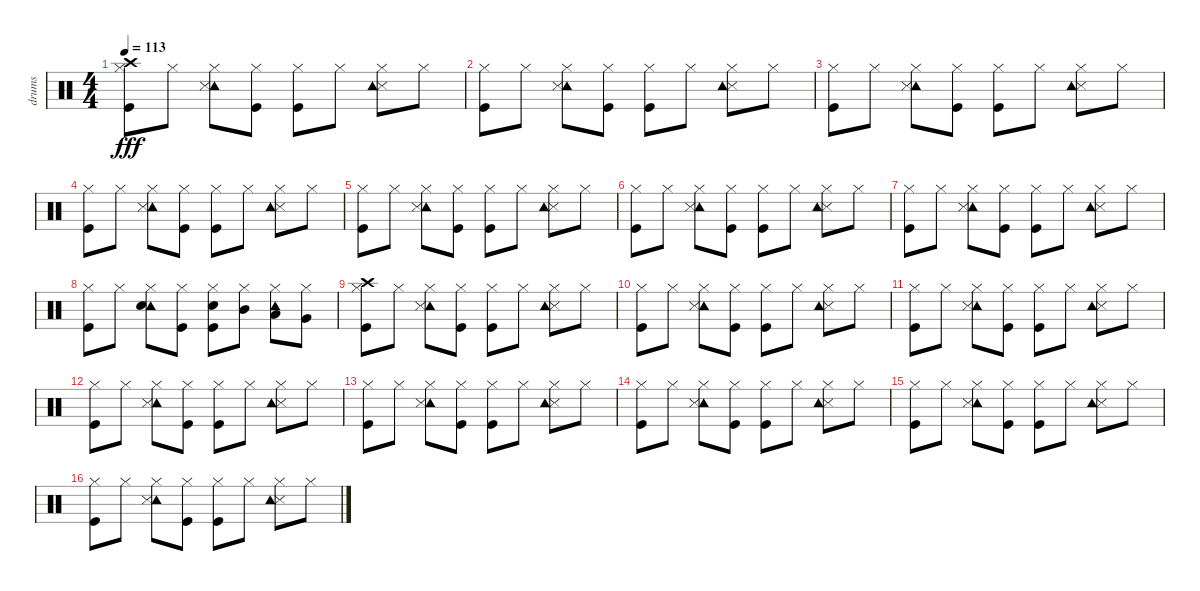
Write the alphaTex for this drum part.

\track ("drums" "drums") {instrument percussion}
\staff {score}
\articulation defaults
\ts (4 4)
\tempo 113
\clef neutral
\ks c
("Crash high (hit)" "Kick (hit)" "Hi-Hat (closed)").8{dy fff} "Hi-Hat (closed)".8 ("Tambourine (hit)" "Snare (side stick) 3" "Hi-Hat (closed)").8 ("Kick (hit)" "Hi-Hat (closed)").8 ("Kick (hit)" "Hi-Hat (closed)").8 "Hi-Hat (closed)".8 ("Snare (side stick) 3" "Hi-Hat (closed)" "Tambourine (hit)").8 "Hi-Hat (closed)".8 |
("Kick (hit)" "Hi-Hat (closed)").8 "Hi-Hat (closed)".8 ("Tambourine (hit)" "Hi-Hat (closed)" "Snare (side stick) 3").8 ("Kick (hit)" "Hi-Hat (closed)").8 ("Kick (hit)" "Hi-Hat (closed)").8 "Hi-Hat (closed)".8 ("Snare (side stick) 3" "Hi-Hat (closed)" "Tambourine (hit)").8 "Hi-Hat (closed)".8 |
("Kick (hit)" "Hi-Hat (closed)").8 "Hi-Hat (closed)".8 ("Tambourine (hit)" "Snare (side stick) 3" "Hi-Hat (closed)").8 ("Kick (hit)" "Hi-Hat (closed)").8 ("Kick (hit)" "Hi-Hat (closed)").8 "Hi-Hat (closed)".8 ("Hi-Hat (closed)" "Snare (side stick) 3" "Tambourine (hit)").8 "Hi-Hat (closed)".8 |
("Kick (hit)" "Hi-Hat (closed)").8 "Hi-Hat (closed)".8 ("Tambourine (hit)" "Hi-Hat (closed)" "Snare (side stick) 3").8 ("Kick (hit)" "Hi-Hat (closed)").8 ("Kick (hit)" "Hi-Hat (closed)").8 "Hi-Hat (closed)".8 ("Hi-Hat (closed)" "Snare (side stick) 3" "Tambourine (hit)").8 "Hi-Hat (closed)".8 |
("Kick (hit)" "Hi-Hat (closed)").8 "Hi-Hat (closed)".8 ("Tambourine (hit)" "Snare (side stick) 3" "Hi-Hat (closed)").8 ("Kick (hit)" "Hi-Hat (closed)").8 ("Kick (hit)" "Hi-Hat (closed)").8 "Hi-Hat (closed)".8 ("Snare (side stick) 3" "Hi-Hat (closed)" "Tambourine (hit)").8 "Hi-Hat (closed)".8 |
("Kick (hit)" "Hi-Hat (closed)").8 "Hi-Hat (closed)".8 ("Tambourine (hit)" "Hi-Hat (closed)" "Snare (side stick) 3").8 ("Kick (hit)" "Hi-Hat (closed)").8 ("Kick (hit)" "Hi-Hat (closed)").8 "Hi-Hat (closed)".8 ("Snare (side stick) 3" "Hi-Hat (closed)" "Tambourine (hit)").8 "Hi-Hat (closed)".8 |
("Kick (hit)" "Hi-Hat (closed)").8 "Hi-Hat (closed)".8 ("Tambourine (hit)" "Snare (side stick) 3" "Hi-Hat (closed)").8 ("Kick (hit)" "Hi-Hat (closed)").8 ("Kick (hit)" "Hi-Hat (closed)").8 "Hi-Hat (closed)".8 ("Hi-Hat (closed)" "Snare (side stick) 3" "Tambourine (hit)").8 "Hi-Hat (closed)".8 |
("Kick (hit)" "Hi-Hat (closed)").8 "Hi-Hat (closed)".8 ("Tambourine (hit)" "Electric Snare (hit)" "Hi-Hat (closed)").8 ("Kick (hit)" "Hi-Hat (closed)").8 ("Electric Snare (hit)" "Kick (hit)" "Hi-Hat (closed)").8 ("Mid Tom (hit)" "Hi-Hat (closed)").8 ("Low Tom (hit)" "Hi-Hat (closed)" "Tambourine (hit)").8 ("Very Low Tom (hit)" "Hi-Hat (closed)").8 |
("Crash high (hit)" "Kick (hit)" "Hi-Hat (closed)").8 "Hi-Hat (closed)".8 ("Tambourine (hit)" "Snare (side stick) 3" "Hi-Hat (closed)").8 ("Kick (hit)" "Hi-Hat (closed)").8 ("Kick (hit)" "Hi-Hat (closed)").8 "Hi-Hat (closed)".8 ("Snare (side stick) 3" "Hi-Hat (closed)" "Tambourine (hit)").8 "Hi-Hat (closed)".8 |
("Kick (hit)" "Hi-Hat (closed)").8 "Hi-Hat (closed)".8 ("Tambourine (hit)" "Hi-Hat (closed)" "Snare (side stick) 3").8 ("Kick (hit)" "Hi-Hat (closed)").8 ("Kick (hit)" "Hi-Hat (closed)").8 "Hi-Hat (closed)".8 ("Snare (side stick) 3" "Hi-Hat (closed)" "Tambourine (hit)").8 "Hi-Hat (closed)".8 |
("Kick (hit)" "Hi-Hat (closed)").8 "Hi-Hat (closed)".8 ("Tambourine (hit)" "Snare (side stick) 3" "Hi-Hat (closed)").8 ("Kick (hit)" "Hi-Hat (closed)").8 ("Kick (hit)" "Hi-Hat (closed)").8 "Hi-Hat (closed)".8 ("Hi-Hat (closed)" "Snare (side stick) 3" "Tambourine (hit)").8 "Hi-Hat (closed)".8 |
("Kick (hit)" "Hi-Hat (closed)").8 "Hi-Hat (closed)".8 ("Tambourine (hit)" "Hi-Hat (closed)" "Snare (side stick) 3").8 ("Kick (hit)" "Hi-Hat (closed)").8 ("Kick (hit)" "Hi-Hat (closed)").8 "Hi-Hat (closed)".8 ("Hi-Hat (closed)" "Snare (side stick) 3" "Tambourine (hit)").8 "Hi-Hat (closed)".8 |
("Kick (hit)" "Hi-Hat (closed)").8 "Hi-Hat (closed)".8 ("Tambourine (hit)" "Snare (side stick) 3" "Hi-Hat (closed)").8 ("Kick (hit)" "Hi-Hat (closed)").8 ("Kick (hit)" "Hi-Hat (closed)").8 "Hi-Hat (closed)".8 ("Snare (side stick) 3" "Hi-Hat (closed)" "Tambourine (hit)").8 "Hi-Hat (closed)".8 |
("Kick (hit)" "Hi-Hat (closed)").8 "Hi-Hat (closed)".8 ("Tambourine (hit)" "Hi-Hat (closed)" "Snare (side stick) 3").8 ("Kick (hit)" "Hi-Hat (closed)").8 ("Kick (hit)" "Hi-Hat (closed)").8 "Hi-Hat (closed)".8 ("Snare (side stick) 3" "Hi-Hat (closed)" "Tambourine (hit)").8 "Hi-Hat (closed)".8 |
("Kick (hit)" "Hi-Hat (closed)").8 "Hi-Hat (closed)".8 ("Tambourine (hit)" "Snare (side stick) 3" "Hi-Hat (closed)").8 ("Kick (hit)" "Hi-Hat (closed)").8 ("Kick (hit)" "Hi-Hat (closed)").8 "Hi-Hat (closed)".8 ("Hi-Hat (closed)" "Snare (side stick) 3" "Tambourine (hit)").8 "Hi-Hat (closed)".8 |
("Kick (hit)" "Hi-Hat (closed)").8 "Hi-Hat (closed)".8 ("Tambourine (hit)" "Hi-Hat (closed)" "Snare (side stick) 3").8 ("Kick (hit)" "Hi-Hat (closed)").8 ("Kick (hit)" "Hi-Hat (closed)").8 "Hi-Hat (closed)".8 ("Hi-Hat (closed)" "Snare (side stick) 3" "Tambourine (hit)").8 "Hi-Hat (closed)".8
